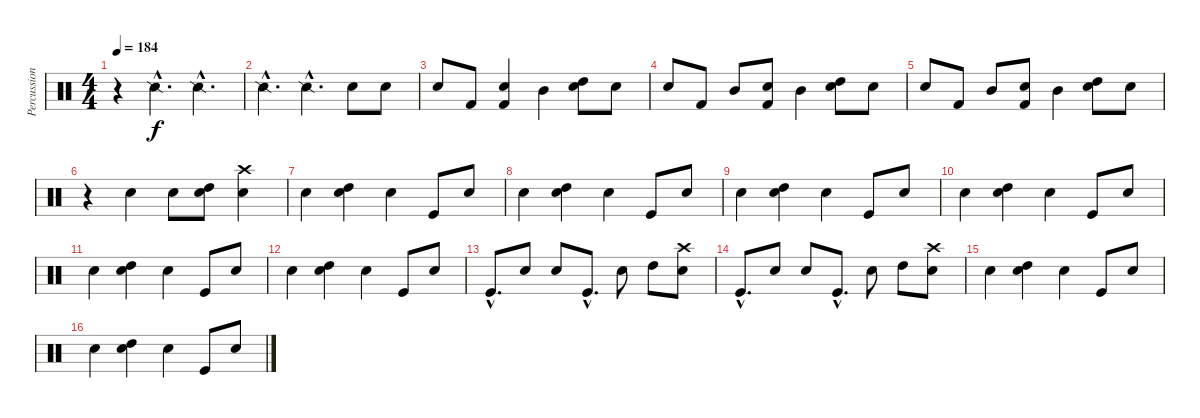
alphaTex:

\track ("Percussions" "Percussion") {instrument percussion}
\staff {score}
\articulation defaults
\ts (4 4)
\tempo 184
\clef neutral
\ks c
r.4{dy f} "Snare (side stick) 2"{hac}.4{d} "Snare (side stick) 2"{hac}.4{d} |
"Snare (side stick) 2"{hac}.4{d} "Snare (side stick) 2"{hac}.4{d} "Metronome (bell)".8 "Metronome (bell)".8 |
"Metronome (bell)".8 "Kick (hit) 2".8 ("Metronome (bell)" "Kick (hit) 2").4 "Mid Tom (hit)".4 ("Metronome (bell)" "High Tom (hit)").8 "Metronome (bell)".8 |
"Metronome (bell)".8 "Kick (hit) 2".8 "Mid Tom (hit)".8 ("Metronome (bell)" "Kick (hit) 2").8 "Mid Tom (hit)".4 ("Metronome (bell)" "High Tom (hit)").8 "Metronome (bell)".8 |
"Metronome (bell)".8 "Kick (hit) 2".8 "Mid Tom (hit)".8 ("Metronome (bell)" "Kick (hit) 2").8 "Mid Tom (hit)".4 ("Metronome (bell)" "High Tom (hit)").8 "Metronome (bell)".8 |
r.4 "Metronome (bell)".4 "Metronome (bell)".8 ("Metronome (bell)" "High Tom (hit)").8 ("Metronome (bell)" "Crash high (hit)").4 |
"Metronome (bell)".4 ("Metronome (bell)" "High Tom (hit)").4 "Metronome (bell)".4 "Kick (hit)".8 "Metronome (bell)".8 |
"Metronome (bell)".4 ("Metronome (bell)" "High Tom (hit)").4 "Metronome (bell)".4 "Kick (hit)".8 "Metronome (bell)".8 |
"Metronome (bell)".4 ("Metronome (bell)" "High Tom (hit)").4 "Metronome (bell)".4 "Kick (hit)".8 "Metronome (bell)".8 |
"Metronome (bell)".4 ("Metronome (bell)" "High Tom (hit)").4 "Metronome (bell)".4 "Kick (hit)".8 "Metronome (bell)".8 |
"Metronome (bell)".4 ("Metronome (bell)" "High Tom (hit)").4 "Metronome (bell)".4 "Kick (hit)".8 "Metronome (bell)".8 |
"Metronome (bell)".4 ("Metronome (bell)" "High Tom (hit)").4 "Metronome (bell)".4 "Kick (hit)".8 "Metronome (bell)".8 |
"Kick (hit)"{hac}.8{d} "Metronome (bell)".8 "Metronome (bell)".8 "Kick (hit)"{hac}.8{d} "Metronome (bell)".8 "High Tom (hit)".8 ("Metronome (bell)" "Crash high (hit)").8 |
"Kick (hit)"{hac}.8{d} "Metronome (bell)".8 "Metronome (bell)".8 "Kick (hit)"{hac}.8{d} "Metronome (bell)".8 "High Tom (hit)".8 ("Metronome (bell)" "Crash high (hit)").8 |
"Metronome (bell)".4 ("Metronome (bell)" "High Tom (hit)").4 "Metronome (bell)".4 "Kick (hit)".8 "Metronome (bell)".8 |
"Metronome (bell)".4 ("Metronome (bell)" "High Tom (hit)").4 "Metronome (bell)".4 "Kick (hit)".8 "Metronome (bell)".8
